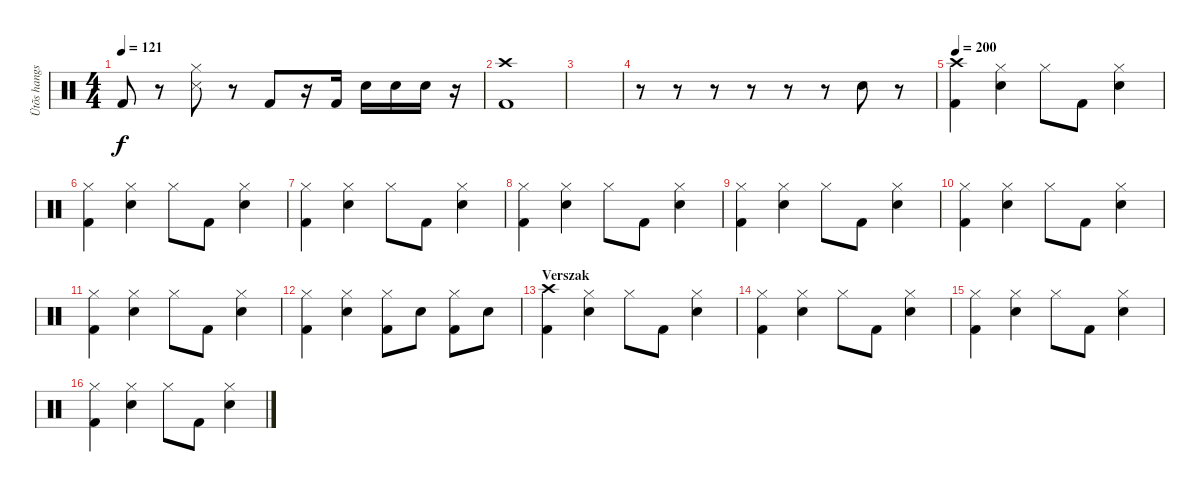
\track ("Ütõs hangszer" "Ütõs hangs") {instrument percussion}
\staff {score}
\articulation defaults
\ts (4 4)
\tempo 121
\clef neutral
\ks c "Kick (hit) 2".8{dy f}
r.8 ("Hi-Hat (closed)" "Metronome (hit)").8 r.8 "Kick (hit) 2".8 r.16 "Kick (hit) 2".16 "Snare (hit) 2".16 "Snare (hit) 2".16 "Snare (hit) 2".16 r.16 |
("Crash high (hit)" "Kick (hit) 2").1 |
|
r.8 r.8 r.8 r.8 r.8 r.8 "Snare (hit) 2".8 r.8 |
\tempo 200
("Crash high (hit)" "Kick (hit) 2").4 ("Hi-Hat (closed)" "Snare (hit) 2").4 "Hi-Hat (closed)".8 "Kick (hit) 2".8 ("Hi-Hat (closed)" "Snare (hit) 2").4 |
("Hi-Hat (closed)" "Kick (hit) 2").4 ("Hi-Hat (closed)" "Snare (hit) 2").4 "Hi-Hat (closed)".8 "Kick (hit) 2".8 ("Hi-Hat (closed)" "Snare (hit) 2").4 |
("Hi-Hat (closed)" "Kick (hit) 2").4 ("Hi-Hat (closed)" "Snare (hit) 2").4 "Hi-Hat (closed)".8 "Kick (hit) 2".8 ("Hi-Hat (closed)" "Snare (hit) 2").4 |
("Hi-Hat (closed)" "Kick (hit) 2").4 ("Hi-Hat (closed)" "Snare (hit) 2").4 "Hi-Hat (closed)".8 "Kick (hit) 2".8 ("Hi-Hat (closed)" "Snare (hit) 2").4 |
("Hi-Hat (closed)" "Kick (hit) 2").4 ("Hi-Hat (closed)" "Snare (hit) 2").4 "Hi-Hat (closed)".8 "Kick (hit) 2".8 ("Hi-Hat (closed)" "Snare (hit) 2").4 |
("Hi-Hat (closed)" "Kick (hit) 2").4 ("Hi-Hat (closed)" "Snare (hit) 2").4 "Hi-Hat (closed)".8 "Kick (hit) 2".8 ("Hi-Hat (closed)" "Snare (hit) 2").4 |
("Hi-Hat (closed)" "Kick (hit) 2").4 ("Hi-Hat (closed)" "Snare (hit) 2").4 "Hi-Hat (closed)".8 "Kick (hit) 2".8 ("Hi-Hat (closed)" "Snare (hit) 2").4 |
("Hi-Hat (closed)" "Kick (hit) 2").4 ("Hi-Hat (closed)" "Snare (hit) 2").4 ("Hi-Hat (closed)" "Kick (hit) 2").8 "Snare (hit) 2".8 ("Hi-Hat (closed)" "Kick (hit) 2").8 "Snare (hit) 2".8 |
\section ("" "Verszak")
("Crash high (hit)" "Kick (hit) 2").4 ("Hi-Hat (closed)" "Snare (hit) 2").4 "Hi-Hat (closed)".8 "Kick (hit) 2".8 ("Hi-Hat (closed)" "Snare (hit) 2").4 |
("Hi-Hat (closed)" "Kick (hit) 2").4 ("Hi-Hat (closed)" "Snare (hit) 2").4 "Hi-Hat (closed)".8 "Kick (hit) 2".8 ("Hi-Hat (closed)" "Snare (hit) 2").4 |
("Hi-Hat (closed)" "Kick (hit) 2").4 ("Hi-Hat (closed)" "Snare (hit) 2").4 "Hi-Hat (closed)".8 "Kick (hit) 2".8 ("Hi-Hat (closed)" "Snare (hit) 2").4 |
("Hi-Hat (closed)" "Kick (hit) 2").4 ("Hi-Hat (closed)" "Snare (hit) 2").4 "Hi-Hat (closed)".8 "Kick (hit) 2".8 ("Hi-Hat (closed)" "Snare (hit) 2").4
